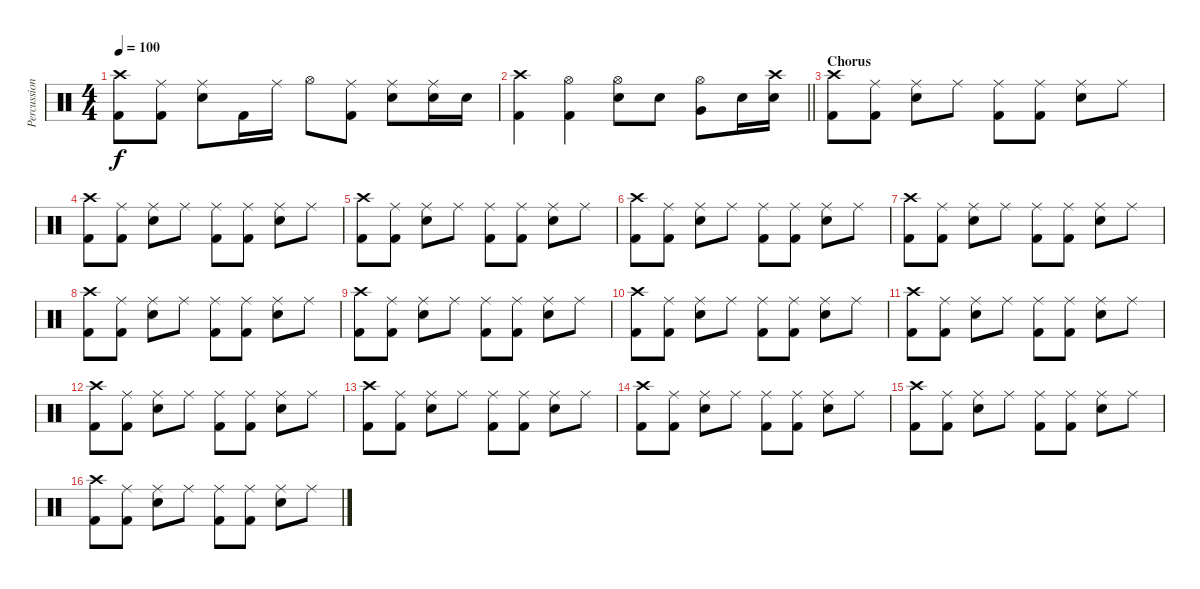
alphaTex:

\track ("Percussion" "Percussion") {instrument percussion}
\staff {score}
\articulation defaults
\ts (4 4)
\tempo 100
\clef neutral
\ks c
("Kick (hit) 2" "Crash high (hit)").8{dy f} ("Kick (hit) 2" "Ride (middle)").8 ("Snare (hit) 2" "Ride (middle)").8 "Kick (hit) 2".16 "Ride (middle)".16 "Hi-Hat (open)".8 ("Kick (hit) 2" "Ride (middle)").8 ("Snare (hit) 2" "Ride (middle)").8 ("Snare (hit) 2" "Ride (middle)").16 "Snare (hit) 2".16 |
\barLineRight lightlight
("Kick (hit) 2" "Crash high (hit)").4 ("Kick (hit) 2" "Hi-Hat (open)").4 ("Snare (hit) 2" "Hi-Hat (open)").8 "Snare (hit) 2".8 ("Very Low Tom (hit)" "Hi-Hat (open)").8 "Snare (hit) 2".16 ("Snare (hit) 2" "Crash high (hit)").16 |
\section ("" "Chorus")
("Crash high (hit)" "Kick (hit) 2").8 ("Ride (middle)" "Kick (hit) 2").8 ("Ride (middle)" "Snare (hit) 2").8 "Ride (middle)".8 ("Ride (middle)" "Kick (hit) 2").8 ("Ride (middle)" "Kick (hit) 2").8 ("Ride (middle)" "Snare (hit) 2").8 "Ride (middle)".8 |
("Crash high (hit)" "Kick (hit) 2").8 ("Ride (middle)" "Kick (hit) 2").8 ("Ride (middle)" "Snare (hit) 2").8 "Ride (middle)".8 ("Ride (middle)" "Kick (hit) 2").8 ("Ride (middle)" "Kick (hit) 2").8 ("Ride (middle)" "Snare (hit) 2").8 "Ride (middle)".8 |
("Crash high (hit)" "Kick (hit) 2").8 ("Ride (middle)" "Kick (hit) 2").8 ("Ride (middle)" "Snare (hit) 2").8 "Ride (middle)".8 ("Ride (middle)" "Kick (hit) 2").8 ("Ride (middle)" "Kick (hit) 2").8 ("Ride (middle)" "Snare (hit) 2").8 "Ride (middle)".8 |
("Crash high (hit)" "Kick (hit) 2").8 ("Ride (middle)" "Kick (hit) 2").8 ("Ride (middle)" "Snare (hit) 2").8 "Ride (middle)".8 ("Ride (middle)" "Kick (hit) 2").8 ("Ride (middle)" "Kick (hit) 2").8 ("Ride (middle)" "Snare (hit) 2").8 "Ride (middle)".8 |
("Crash high (hit)" "Kick (hit) 2").8 ("Ride (middle)" "Kick (hit) 2").8 ("Ride (middle)" "Snare (hit) 2").8 "Ride (middle)".8 ("Ride (middle)" "Kick (hit) 2").8 ("Ride (middle)" "Kick (hit) 2").8 ("Ride (middle)" "Snare (hit) 2").8 "Ride (middle)".8 |
("Crash high (hit)" "Kick (hit) 2").8 ("Ride (middle)" "Kick (hit) 2").8 ("Ride (middle)" "Snare (hit) 2").8 "Ride (middle)".8 ("Ride (middle)" "Kick (hit) 2").8 ("Ride (middle)" "Kick (hit) 2").8 ("Ride (middle)" "Snare (hit) 2").8 "Ride (middle)".8 |
("Crash high (hit)" "Kick (hit) 2").8 ("Ride (middle)" "Kick (hit) 2").8 ("Ride (middle)" "Snare (hit) 2").8 "Ride (middle)".8 ("Ride (middle)" "Kick (hit) 2").8 ("Ride (middle)" "Kick (hit) 2").8 ("Ride (middle)" "Snare (hit) 2").8 "Ride (middle)".8 |
("Crash high (hit)" "Kick (hit) 2").8 ("Ride (middle)" "Kick (hit) 2").8 ("Ride (middle)" "Snare (hit) 2").8 "Ride (middle)".8 ("Ride (middle)" "Kick (hit) 2").8 ("Ride (middle)" "Kick (hit) 2").8 ("Ride (middle)" "Snare (hit) 2").8 "Ride (middle)".8 |
("Crash high (hit)" "Kick (hit) 2").8 ("Ride (middle)" "Kick (hit) 2").8 ("Ride (middle)" "Snare (hit) 2").8 "Ride (middle)".8 ("Ride (middle)" "Kick (hit) 2").8 ("Ride (middle)" "Kick (hit) 2").8 ("Ride (middle)" "Snare (hit) 2").8 "Ride (middle)".8 |
("Crash high (hit)" "Kick (hit) 2").8 ("Ride (middle)" "Kick (hit) 2").8 ("Ride (middle)" "Snare (hit) 2").8 "Ride (middle)".8 ("Ride (middle)" "Kick (hit) 2").8 ("Ride (middle)" "Kick (hit) 2").8 ("Ride (middle)" "Snare (hit) 2").8 "Ride (middle)".8 |
("Crash high (hit)" "Kick (hit) 2").8 ("Ride (middle)" "Kick (hit) 2").8 ("Ride (middle)" "Snare (hit) 2").8 "Ride (middle)".8 ("Ride (middle)" "Kick (hit) 2").8 ("Ride (middle)" "Kick (hit) 2").8 ("Ride (middle)" "Snare (hit) 2").8 "Ride (middle)".8 |
("Crash high (hit)" "Kick (hit) 2").8 ("Ride (middle)" "Kick (hit) 2").8 ("Ride (middle)" "Snare (hit) 2").8 "Ride (middle)".8 ("Ride (middle)" "Kick (hit) 2").8 ("Ride (middle)" "Kick (hit) 2").8 ("Ride (middle)" "Snare (hit) 2").8 "Ride (middle)".8 |
("Crash high (hit)" "Kick (hit) 2").8 ("Ride (middle)" "Kick (hit) 2").8 ("Ride (middle)" "Snare (hit) 2").8 "Ride (middle)".8 ("Ride (middle)" "Kick (hit) 2").8 ("Ride (middle)" "Kick (hit) 2").8 ("Ride (middle)" "Snare (hit) 2").8 "Ride (middle)".8 |
("Crash high (hit)" "Kick (hit) 2").8 ("Ride (middle)" "Kick (hit) 2").8 ("Ride (middle)" "Snare (hit) 2").8 "Ride (middle)".8 ("Ride (middle)" "Kick (hit) 2").8 ("Ride (middle)" "Kick (hit) 2").8 ("Ride (middle)" "Snare (hit) 2").8 "Ride (middle)".8
